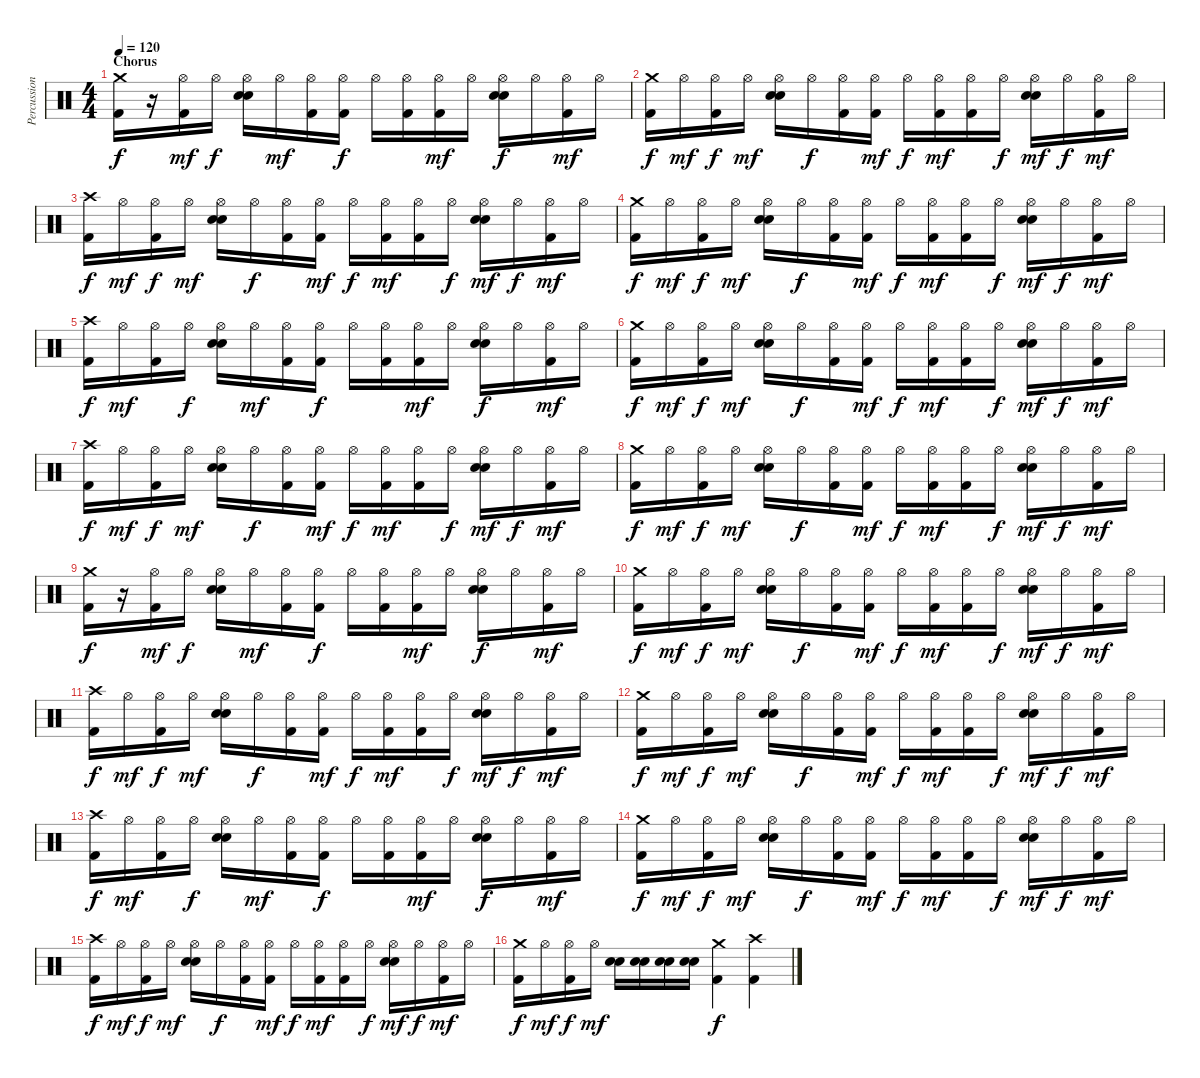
\track ("Percussions" "Percussion") {instrument percussion}
\staff {score}
\articulation defaults
\ts (4 4)
\section ("" "Chorus")
\tempo 120
\clef neutral
\ks c
("Crash medium (hit)" "Kick (hit) 2").16{dy f} r.16 ("Hi-Hat (open)" "Kick (hit) 2").16{dy mf} "Hi-Hat (open)".16{dy f} ("Hi-Hat (open)" "Snare (hit) 2" "Electric Snare (hit)").16 "Hi-Hat (open)".16{dy mf} ("Hi-Hat (open)" "Kick (hit) 2").16 ("Hi-Hat (open)" "Kick (hit) 2").16{dy f} "Hi-Hat (open)".16 ("Hi-Hat (open)" "Kick (hit) 2").16 ("Hi-Hat (open)" "Kick (hit) 2").16{dy mf} "Hi-Hat (open)".16 ("Hi-Hat (open)" "Snare (hit) 2" "Electric Snare (hit)").16{dy f} "Hi-Hat (open)".16 ("Hi-Hat (open)" "Kick (hit) 2").16{dy mf} "Hi-Hat (open)".16 |
("Crash medium (hit)" "Kick (hit) 2").16{dy f} "Hi-Hat (open)".16{dy mf} ("Hi-Hat (open)" "Kick (hit) 2").16{dy f} "Hi-Hat (open)".16{dy mf} ("Hi-Hat (open)" "Snare (hit) 2" "Electric Snare (hit)").16 "Hi-Hat (open)".16{dy f} ("Hi-Hat (open)" "Kick (hit) 2").16 ("Hi-Hat (open)" "Kick (hit) 2").16{dy mf} "Hi-Hat (open)".16{dy f} ("Hi-Hat (open)" "Kick (hit) 2").16{dy mf} ("Hi-Hat (open)" "Kick (hit) 2").16 "Hi-Hat (open)".16{dy f} ("Hi-Hat (open)" "Snare (hit) 2" "Electric Snare (hit)").16{dy mf} "Hi-Hat (open)".16{dy f} ("Hi-Hat (open)" "Kick (hit) 2").16{dy mf} "Hi-Hat (open)".16 |
("Crash high (hit)" "Kick (hit) 2").16{dy f} "Hi-Hat (open)".16{dy mf} ("Hi-Hat (open)" "Kick (hit) 2").16{dy f} "Hi-Hat (open)".16{dy mf} ("Hi-Hat (open)" "Snare (hit) 2" "Electric Snare (hit)").16 "Hi-Hat (open)".16{dy f} ("Hi-Hat (open)" "Kick (hit) 2").16 ("Hi-Hat (open)" "Kick (hit) 2").16{dy mf} "Hi-Hat (open)".16{dy f} ("Hi-Hat (open)" "Kick (hit) 2").16{dy mf} ("Hi-Hat (open)" "Kick (hit) 2").16 "Hi-Hat (open)".16{dy f} ("Hi-Hat (open)" "Snare (hit) 2" "Electric Snare (hit)").16{dy mf} "Hi-Hat (open)".16{dy f} ("Hi-Hat (open)" "Kick (hit) 2").16{dy mf} "Hi-Hat (open)".16 |
("Crash medium (hit)" "Kick (hit) 2").16{dy f} "Hi-Hat (open)".16{dy mf} ("Hi-Hat (open)" "Kick (hit) 2").16{dy f} "Hi-Hat (open)".16{dy mf} ("Hi-Hat (open)" "Snare (hit) 2" "Electric Snare (hit)").16 "Hi-Hat (open)".16{dy f} ("Hi-Hat (open)" "Kick (hit) 2").16 ("Hi-Hat (open)" "Kick (hit) 2").16{dy mf} "Hi-Hat (open)".16{dy f} ("Hi-Hat (open)" "Kick (hit) 2").16{dy mf} ("Hi-Hat (open)" "Kick (hit) 2").16 "Hi-Hat (open)".16{dy f} ("Hi-Hat (open)" "Snare (hit) 2" "Electric Snare (hit)").16{dy mf} "Hi-Hat (open)".16{dy f} ("Hi-Hat (open)" "Kick (hit) 2").16{dy mf} "Hi-Hat (open)".16 |
("Crash high (hit)" "Kick (hit) 2").16{dy f} "Hi-Hat (open)".16{dy mf} ("Hi-Hat (open)" "Kick (hit) 2").16 "Hi-Hat (open)".16{dy f} ("Hi-Hat (open)" "Snare (hit) 2" "Electric Snare (hit)").16 "Hi-Hat (open)".16{dy mf} ("Hi-Hat (open)" "Kick (hit) 2").16 ("Hi-Hat (open)" "Kick (hit) 2").16{dy f} "Hi-Hat (open)".16 ("Hi-Hat (open)" "Kick (hit) 2").16 ("Hi-Hat (open)" "Kick (hit) 2").16{dy mf} "Hi-Hat (open)".16 ("Hi-Hat (open)" "Snare (hit) 2" "Electric Snare (hit)").16{dy f} "Hi-Hat (open)".16 ("Hi-Hat (open)" "Kick (hit) 2").16{dy mf} "Hi-Hat (open)".16 |
("Crash medium (hit)" "Kick (hit) 2").16{dy f} "Hi-Hat (open)".16{dy mf} ("Hi-Hat (open)" "Kick (hit) 2").16{dy f} "Hi-Hat (open)".16{dy mf} ("Hi-Hat (open)" "Snare (hit) 2" "Electric Snare (hit)").16 "Hi-Hat (open)".16{dy f} ("Hi-Hat (open)" "Kick (hit) 2").16 ("Hi-Hat (open)" "Kick (hit) 2").16{dy mf} "Hi-Hat (open)".16{dy f} ("Hi-Hat (open)" "Kick (hit) 2").16{dy mf} ("Hi-Hat (open)" "Kick (hit) 2").16 "Hi-Hat (open)".16{dy f} ("Hi-Hat (open)" "Snare (hit) 2" "Electric Snare (hit)").16{dy mf} "Hi-Hat (open)".16{dy f} ("Hi-Hat (open)" "Kick (hit) 2").16{dy mf} "Hi-Hat (open)".16 |
("Crash high (hit)" "Kick (hit) 2").16{dy f} "Hi-Hat (open)".16{dy mf} ("Hi-Hat (open)" "Kick (hit) 2").16{dy f} "Hi-Hat (open)".16{dy mf} ("Hi-Hat (open)" "Snare (hit) 2" "Electric Snare (hit)").16 "Hi-Hat (open)".16{dy f} ("Hi-Hat (open)" "Kick (hit) 2").16 ("Hi-Hat (open)" "Kick (hit) 2").16{dy mf} "Hi-Hat (open)".16{dy f} ("Hi-Hat (open)" "Kick (hit) 2").16{dy mf} ("Hi-Hat (open)" "Kick (hit) 2").16 "Hi-Hat (open)".16{dy f} ("Hi-Hat (open)" "Snare (hit) 2" "Electric Snare (hit)").16{dy mf} "Hi-Hat (open)".16{dy f} ("Hi-Hat (open)" "Kick (hit) 2").16{dy mf} "Hi-Hat (open)".16 |
("Crash medium (hit)" "Kick (hit) 2").16{dy f} "Hi-Hat (open)".16{dy mf} ("Hi-Hat (open)" "Kick (hit) 2").16{dy f} "Hi-Hat (open)".16{dy mf} ("Hi-Hat (open)" "Snare (hit) 2" "Electric Snare (hit)").16 "Hi-Hat (open)".16{dy f} ("Hi-Hat (open)" "Kick (hit) 2").16 ("Hi-Hat (open)" "Kick (hit) 2").16{dy mf} "Hi-Hat (open)".16{dy f} ("Hi-Hat (open)" "Kick (hit) 2").16{dy mf} ("Hi-Hat (open)" "Kick (hit) 2").16 "Hi-Hat (open)".16{dy f} ("Hi-Hat (open)" "Snare (hit) 2" "Electric Snare (hit)").16{dy mf} "Hi-Hat (open)".16{dy f} ("Hi-Hat (open)" "Kick (hit) 2").16{dy mf} "Hi-Hat (open)".16 |
("Crash medium (hit)" "Kick (hit) 2").16{dy f} r.16 ("Hi-Hat (open)" "Kick (hit) 2").16{dy mf} "Hi-Hat (open)".16{dy f} ("Hi-Hat (open)" "Snare (hit) 2" "Electric Snare (hit)").16 "Hi-Hat (open)".16{dy mf} ("Hi-Hat (open)" "Kick (hit) 2").16 ("Hi-Hat (open)" "Kick (hit) 2").16{dy f} "Hi-Hat (open)".16 ("Hi-Hat (open)" "Kick (hit) 2").16 ("Hi-Hat (open)" "Kick (hit) 2").16{dy mf} "Hi-Hat (open)".16 ("Hi-Hat (open)" "Snare (hit) 2" "Electric Snare (hit)").16{dy f} "Hi-Hat (open)".16 ("Hi-Hat (open)" "Kick (hit) 2").16{dy mf} "Hi-Hat (open)".16 |
("Crash medium (hit)" "Kick (hit) 2").16{dy f} "Hi-Hat (open)".16{dy mf} ("Hi-Hat (open)" "Kick (hit) 2").16{dy f} "Hi-Hat (open)".16{dy mf} ("Hi-Hat (open)" "Snare (hit) 2" "Electric Snare (hit)").16 "Hi-Hat (open)".16{dy f} ("Hi-Hat (open)" "Kick (hit) 2").16 ("Hi-Hat (open)" "Kick (hit) 2").16{dy mf} "Hi-Hat (open)".16{dy f} ("Hi-Hat (open)" "Kick (hit) 2").16{dy mf} ("Hi-Hat (open)" "Kick (hit) 2").16 "Hi-Hat (open)".16{dy f} ("Hi-Hat (open)" "Snare (hit) 2" "Electric Snare (hit)").16{dy mf} "Hi-Hat (open)".16{dy f} ("Hi-Hat (open)" "Kick (hit) 2").16{dy mf} "Hi-Hat (open)".16 |
("Crash high (hit)" "Kick (hit) 2").16{dy f} "Hi-Hat (open)".16{dy mf} ("Hi-Hat (open)" "Kick (hit) 2").16{dy f} "Hi-Hat (open)".16{dy mf} ("Hi-Hat (open)" "Snare (hit) 2" "Electric Snare (hit)").16 "Hi-Hat (open)".16{dy f} ("Hi-Hat (open)" "Kick (hit) 2").16 ("Hi-Hat (open)" "Kick (hit) 2").16{dy mf} "Hi-Hat (open)".16{dy f} ("Hi-Hat (open)" "Kick (hit) 2").16{dy mf} ("Hi-Hat (open)" "Kick (hit) 2").16 "Hi-Hat (open)".16{dy f} ("Hi-Hat (open)" "Snare (hit) 2" "Electric Snare (hit)").16{dy mf} "Hi-Hat (open)".16{dy f} ("Hi-Hat (open)" "Kick (hit) 2").16{dy mf} "Hi-Hat (open)".16 |
("Crash medium (hit)" "Kick (hit) 2").16{dy f} "Hi-Hat (open)".16{dy mf} ("Hi-Hat (open)" "Kick (hit) 2").16{dy f} "Hi-Hat (open)".16{dy mf} ("Hi-Hat (open)" "Snare (hit) 2" "Electric Snare (hit)").16 "Hi-Hat (open)".16{dy f} ("Hi-Hat (open)" "Kick (hit) 2").16 ("Hi-Hat (open)" "Kick (hit) 2").16{dy mf} "Hi-Hat (open)".16{dy f} ("Hi-Hat (open)" "Kick (hit) 2").16{dy mf} ("Hi-Hat (open)" "Kick (hit) 2").16 "Hi-Hat (open)".16{dy f} ("Hi-Hat (open)" "Snare (hit) 2" "Electric Snare (hit)").16{dy mf} "Hi-Hat (open)".16{dy f} ("Hi-Hat (open)" "Kick (hit) 2").16{dy mf} "Hi-Hat (open)".16 |
("Crash high (hit)" "Kick (hit) 2").16{dy f} "Hi-Hat (open)".16{dy mf} ("Hi-Hat (open)" "Kick (hit) 2").16 "Hi-Hat (open)".16{dy f} ("Hi-Hat (open)" "Snare (hit) 2" "Electric Snare (hit)").16 "Hi-Hat (open)".16{dy mf} ("Hi-Hat (open)" "Kick (hit) 2").16 ("Hi-Hat (open)" "Kick (hit) 2").16{dy f} "Hi-Hat (open)".16 ("Hi-Hat (open)" "Kick (hit) 2").16 ("Hi-Hat (open)" "Kick (hit) 2").16{dy mf} "Hi-Hat (open)".16 ("Hi-Hat (open)" "Snare (hit) 2" "Electric Snare (hit)").16{dy f} "Hi-Hat (open)".16 ("Hi-Hat (open)" "Kick (hit) 2").16{dy mf} "Hi-Hat (open)".16 |
("Crash medium (hit)" "Kick (hit) 2").16{dy f} "Hi-Hat (open)".16{dy mf} ("Hi-Hat (open)" "Kick (hit) 2").16{dy f} "Hi-Hat (open)".16{dy mf} ("Hi-Hat (open)" "Snare (hit) 2" "Electric Snare (hit)").16 "Hi-Hat (open)".16{dy f} ("Hi-Hat (open)" "Kick (hit) 2").16 ("Hi-Hat (open)" "Kick (hit) 2").16{dy mf} "Hi-Hat (open)".16{dy f} ("Hi-Hat (open)" "Kick (hit) 2").16{dy mf} ("Hi-Hat (open)" "Kick (hit) 2").16 "Hi-Hat (open)".16{dy f} ("Hi-Hat (open)" "Snare (hit) 2" "Electric Snare (hit)").16{dy mf} "Hi-Hat (open)".16{dy f} ("Hi-Hat (open)" "Kick (hit) 2").16{dy mf} "Hi-Hat (open)".16 |
("Crash high (hit)" "Kick (hit) 2").16{dy f} "Hi-Hat (open)".16{dy mf} ("Hi-Hat (open)" "Kick (hit) 2").16{dy f} "Hi-Hat (open)".16{dy mf} ("Hi-Hat (open)" "Snare (hit) 2" "Electric Snare (hit)").16 "Hi-Hat (open)".16{dy f} ("Hi-Hat (open)" "Kick (hit) 2").16 ("Hi-Hat (open)" "Kick (hit) 2").16{dy mf} "Hi-Hat (open)".16{dy f} ("Hi-Hat (open)" "Kick (hit) 2").16{dy mf} ("Hi-Hat (open)" "Kick (hit) 2").16 "Hi-Hat (open)".16{dy f} ("Hi-Hat (open)" "Snare (hit) 2" "Electric Snare (hit)").16{dy mf} "Hi-Hat (open)".16{dy f} ("Hi-Hat (open)" "Kick (hit) 2").16{dy mf} "Hi-Hat (open)".16 |
("Crash medium (hit)" "Kick (hit) 2").16{dy f} "Hi-Hat (open)".16{dy mf} ("Hi-Hat (open)" "Kick (hit) 2").16{dy f} "Hi-Hat (open)".16{dy mf} ("Snare (hit) 2" "Electric Snare (hit)").16 ("Snare (hit) 2" "Electric Snare (hit)").16 ("Snare (hit) 2" "Electric Snare (hit)").16 ("Snare (hit) 2" "Electric Snare (hit)").16 ("Crash medium (hit)" "Kick (hit) 2").4{dy f} ("Crash high (hit)" "Kick (hit) 2").4
